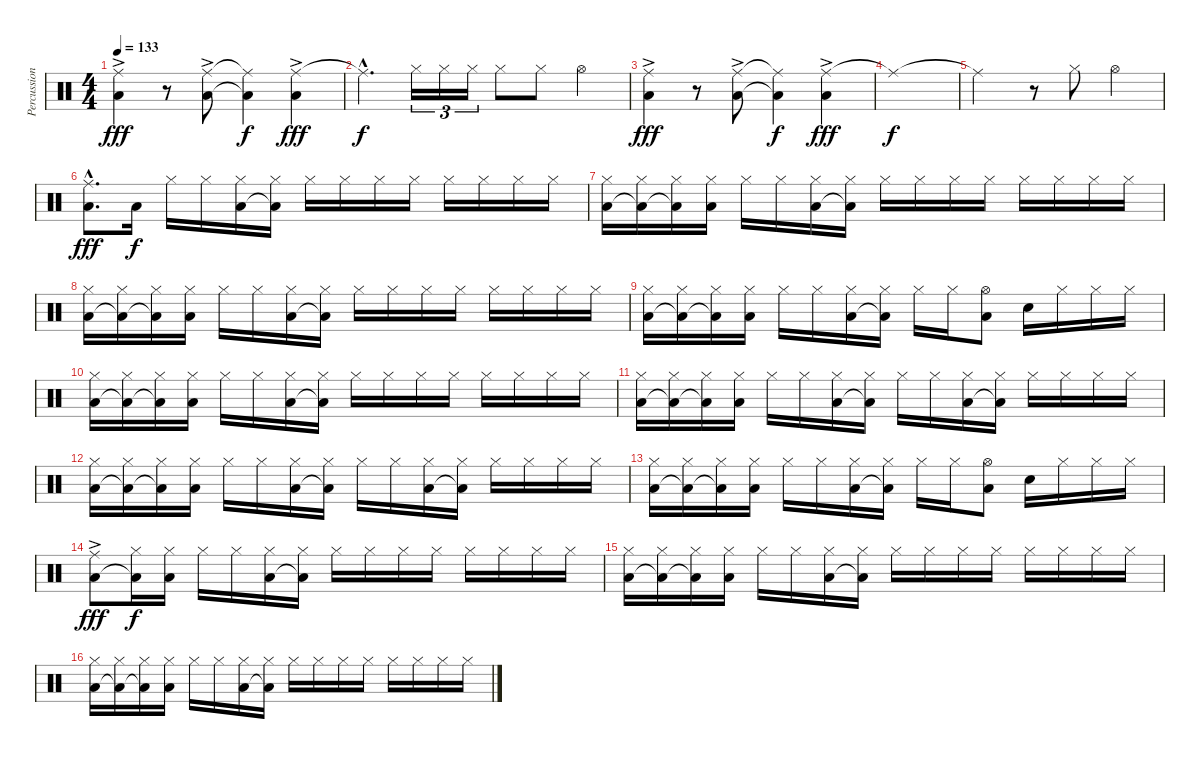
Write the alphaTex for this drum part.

\track ("Percussion" "Percussion") {instrument percussion}
\staff {score}
\articulation defaults
\ts (4 4)
\tempo 133
\clef neutral
\ks c
("Ride (middle)"{ac} "Low Floor Tom (hit)").4{dy fff} r.8 ("Ride (middle)"{ac} "Low Floor Tom (hit)").8 ("Ride (middle)"{t} "Low Floor Tom (hit)"{t}).4{dy f} ("Ride (middle)"{ac} "Low Floor Tom (hit)").4{dy fff} |
"Ride (middle)"{hac t}.4{d dy f} "Hi-Hat (closed)".16{tu (3 2)} "Hi-Hat (closed)".16{tu (3 2)} "Hi-Hat (closed)".16{tu (3 2)} "Hi-Hat (closed)".8 "Hi-Hat (closed)".8 "Hi-Hat (open)".4 |
("Ride (middle)"{ac} "Low Floor Tom (hit)").4{dy fff} r.8 ("Ride (middle)"{ac} "Low Floor Tom (hit)").8 ("Ride (middle)"{t} "Low Floor Tom (hit)"{t}).4{dy f} ("Ride (middle)"{ac} "Low Floor Tom (hit)").4{dy fff} |
"Ride (middle)"{t}.1{dy f} |
"Ride (middle)"{t}.2 r.8 "Hi-Hat (closed)".8 "Hi-Hat (open)".4 |
("Ride (middle)"{hac} "Low Floor Tom (hit)"{hac}).8{d dy fff} "Low Floor Tom (hit)".16{dy f} "Hi-Hat (closed)".16 "Hi-Hat (closed)".16 ("Hi-Hat (closed)" "Low Floor Tom (hit)").16 ("Hi-Hat (closed)" "Low Floor Tom (hit)"{t}).16 "Hi-Hat (closed)".16 "Hi-Hat (closed)".16 "Hi-Hat (closed)".16 "Hi-Hat (closed)".16 "Hi-Hat (closed)".16 "Hi-Hat (closed)".16 "Hi-Hat (closed)".16 "Hi-Hat (closed)".16 |
("Hi-Hat (closed)" "Low Floor Tom (hit)").16 ("Hi-Hat (closed)" "Low Floor Tom (hit)"{t}).16 ("Hi-Hat (closed)" "Low Floor Tom (hit)"{t}).16 ("Hi-Hat (closed)" "Low Floor Tom (hit)").16 "Hi-Hat (closed)".16 "Hi-Hat (closed)".16 ("Hi-Hat (closed)" "Low Floor Tom (hit)").16 ("Hi-Hat (closed)" "Low Floor Tom (hit)"{t}).16 "Hi-Hat (closed)".16 "Hi-Hat (closed)".16 "Hi-Hat (closed)".16 "Hi-Hat (closed)".16 "Hi-Hat (closed)".16 "Hi-Hat (closed)".16 "Hi-Hat (closed)".16 "Hi-Hat (closed)".16 |
("Hi-Hat (closed)" "Low Floor Tom (hit)").16 ("Hi-Hat (closed)" "Low Floor Tom (hit)"{t}).16 ("Hi-Hat (closed)" "Low Floor Tom (hit)"{t}).16 ("Hi-Hat (closed)" "Low Floor Tom (hit)").16 "Hi-Hat (closed)".16 "Hi-Hat (closed)".16 ("Hi-Hat (closed)" "Low Floor Tom (hit)").16 ("Hi-Hat (closed)" "Low Floor Tom (hit)"{t}).16 "Hi-Hat (closed)".16 "Hi-Hat (closed)".16 "Hi-Hat (closed)".16 "Hi-Hat (closed)".16 "Hi-Hat (closed)".16 "Hi-Hat (closed)".16 "Hi-Hat (closed)".16 "Hi-Hat (closed)".16 |
("Hi-Hat (closed)" "Low Floor Tom (hit)").16 ("Hi-Hat (closed)" "Low Floor Tom (hit)"{t}).16 ("Hi-Hat (closed)" "Low Floor Tom (hit)"{t}).16 ("Hi-Hat (closed)" "Low Floor Tom (hit)").16 "Hi-Hat (closed)".16 "Hi-Hat (closed)".16 ("Hi-Hat (closed)" "Low Floor Tom (hit)").16 ("Hi-Hat (closed)" "Low Floor Tom (hit)"{t}).16 "Hi-Hat (closed)".16 "Hi-Hat (closed)".16 ("Hi-Hat (open)" "Low Floor Tom (hit)").8 "Snare (hit) 2".16 "Hi-Hat (closed)".16 "Hi-Hat (closed)".16 "Hi-Hat (closed)".16 |
("Hi-Hat (closed)" "Low Floor Tom (hit)").16 ("Hi-Hat (closed)" "Low Floor Tom (hit)"{t}).16 ("Hi-Hat (closed)" "Low Floor Tom (hit)"{t}).16 ("Hi-Hat (closed)" "Low Floor Tom (hit)").16 "Hi-Hat (closed)".16 "Hi-Hat (closed)".16 ("Hi-Hat (closed)" "Low Floor Tom (hit)").16 ("Hi-Hat (closed)" "Low Floor Tom (hit)"{t}).16 "Hi-Hat (closed)".16 "Hi-Hat (closed)".16 "Hi-Hat (closed)".16 "Hi-Hat (closed)".16 "Hi-Hat (closed)".16 "Hi-Hat (closed)".16 "Hi-Hat (closed)".16 "Hi-Hat (closed)".16 |
("Hi-Hat (closed)" "Low Floor Tom (hit)").16 ("Hi-Hat (closed)" "Low Floor Tom (hit)"{t}).16 ("Hi-Hat (closed)" "Low Floor Tom (hit)"{t}).16 ("Hi-Hat (closed)" "Low Floor Tom (hit)").16 "Hi-Hat (closed)".16 "Hi-Hat (closed)".16 ("Hi-Hat (closed)" "Low Floor Tom (hit)").16 ("Hi-Hat (closed)" "Low Floor Tom (hit)"{t}).16 "Hi-Hat (closed)".16 "Hi-Hat (closed)".16 ("Hi-Hat (closed)" "Low Floor Tom (hit)").16 ("Hi-Hat (closed)" "Low Floor Tom (hit)"{t}).16 "Hi-Hat (closed)".16 "Hi-Hat (closed)".16 "Hi-Hat (closed)".16 "Hi-Hat (closed)".16 |
("Hi-Hat (closed)" "Low Floor Tom (hit)").16 ("Hi-Hat (closed)" "Low Floor Tom (hit)"{t}).16 ("Hi-Hat (closed)" "Low Floor Tom (hit)"{t}).16 ("Hi-Hat (closed)" "Low Floor Tom (hit)").16 "Hi-Hat (closed)".16 "Hi-Hat (closed)".16 ("Hi-Hat (closed)" "Low Floor Tom (hit)").16 ("Hi-Hat (closed)" "Low Floor Tom (hit)"{t}).16 "Hi-Hat (closed)".16 "Hi-Hat (closed)".16 ("Hi-Hat (closed)" "Low Floor Tom (hit)").16 ("Hi-Hat (closed)" "Low Floor Tom (hit)"{t}).16 "Hi-Hat (closed)".16 "Hi-Hat (closed)".16 "Hi-Hat (closed)".16 "Hi-Hat (closed)".16 |
("Hi-Hat (closed)" "Low Floor Tom (hit)").16 ("Hi-Hat (closed)" "Low Floor Tom (hit)"{t}).16 ("Hi-Hat (closed)" "Low Floor Tom (hit)"{t}).16 ("Hi-Hat (closed)" "Low Floor Tom (hit)").16 "Hi-Hat (closed)".16 "Hi-Hat (closed)".16 ("Hi-Hat (closed)" "Low Floor Tom (hit)").16 ("Hi-Hat (closed)" "Low Floor Tom (hit)"{t}).16 "Hi-Hat (closed)".16 "Hi-Hat (closed)".16 ("Hi-Hat (open)" "Low Floor Tom (hit)").8 "Snare (hit) 2".16 "Hi-Hat (closed)".16 "Hi-Hat (closed)".16 "Hi-Hat (closed)".16 |
("Ride (middle)"{ac} "Low Floor Tom (hit)").8{dy fff} ("Hi-Hat (closed)" "Low Floor Tom (hit)"{t}).16{dy f} ("Hi-Hat (closed)" "Low Floor Tom (hit)").16 "Hi-Hat (closed)".16 "Hi-Hat (closed)".16 ("Hi-Hat (closed)" "Low Floor Tom (hit)").16 ("Hi-Hat (closed)" "Low Floor Tom (hit)"{t}).16 "Hi-Hat (closed)".16 "Hi-Hat (closed)".16 "Hi-Hat (closed)".16 "Hi-Hat (closed)".16 "Hi-Hat (closed)".16 "Hi-Hat (closed)".16 "Hi-Hat (closed)".16 "Hi-Hat (closed)".16 |
("Hi-Hat (closed)" "Low Floor Tom (hit)").16 ("Hi-Hat (closed)" "Low Floor Tom (hit)"{t}).16 ("Hi-Hat (closed)" "Low Floor Tom (hit)"{t}).16 ("Hi-Hat (closed)" "Low Floor Tom (hit)").16 "Hi-Hat (closed)".16 "Hi-Hat (closed)".16 ("Hi-Hat (closed)" "Low Floor Tom (hit)").16 ("Hi-Hat (closed)" "Low Floor Tom (hit)"{t}).16 "Hi-Hat (closed)".16 "Hi-Hat (closed)".16 "Hi-Hat (closed)".16 "Hi-Hat (closed)".16 "Hi-Hat (closed)".16 "Hi-Hat (closed)".16 "Hi-Hat (closed)".16 "Hi-Hat (closed)".16 |
("Hi-Hat (closed)" "Low Floor Tom (hit)").16 ("Hi-Hat (closed)" "Low Floor Tom (hit)"{t}).16 ("Hi-Hat (closed)" "Low Floor Tom (hit)"{t}).16 ("Hi-Hat (closed)" "Low Floor Tom (hit)").16 "Hi-Hat (closed)".16 "Hi-Hat (closed)".16 ("Hi-Hat (closed)" "Low Floor Tom (hit)").16 ("Hi-Hat (closed)" "Low Floor Tom (hit)"{t}).16 "Hi-Hat (closed)".16 "Hi-Hat (closed)".16 "Hi-Hat (closed)".16 "Hi-Hat (closed)".16 "Hi-Hat (closed)".16 "Hi-Hat (closed)".16 "Hi-Hat (closed)".16 "Hi-Hat (closed)".16
